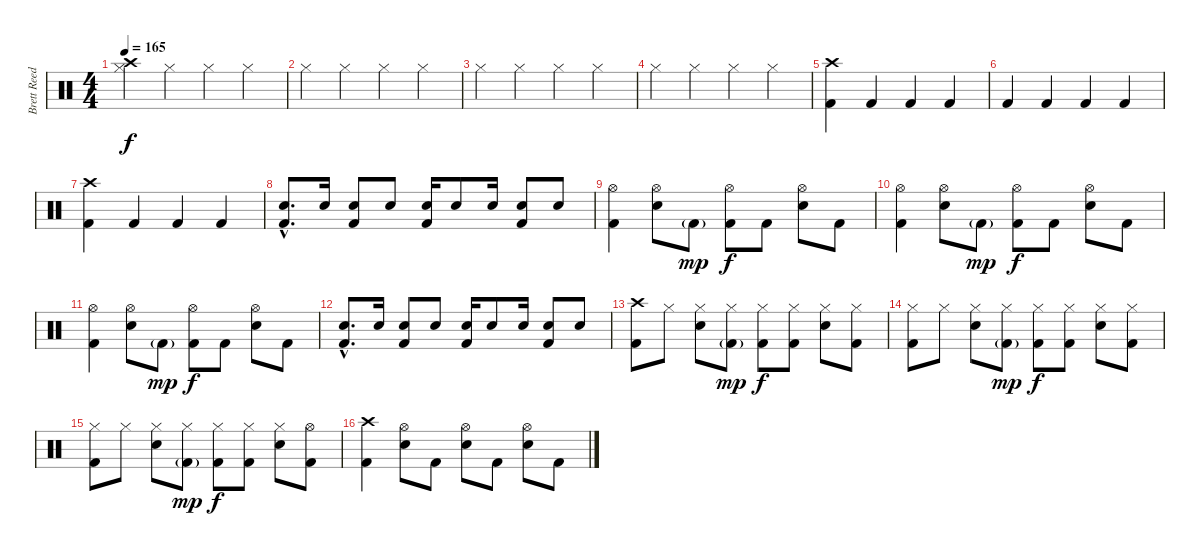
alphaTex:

\track ("Brett Reed - Drums" "Brett Reed") {instrument percussion}
\staff {score}
\articulation defaults
\ts (4 4)
\tempo 165
\clef neutral
\ks c
("Crash high (hit)" "Hi-Hat (closed)").4{dy f} "Hi-Hat (closed)".4 "Hi-Hat (closed)".4 "Hi-Hat (closed)".4 |
"Hi-Hat (closed)".4 "Hi-Hat (closed)".4 "Hi-Hat (closed)".4 "Hi-Hat (closed)".4 |
"Hi-Hat (closed)".4 "Hi-Hat (closed)".4 "Hi-Hat (closed)".4 "Hi-Hat (closed)".4 |
"Hi-Hat (closed)".4 "Hi-Hat (closed)".4 "Hi-Hat (closed)".4 "Hi-Hat (closed)".4 |
("Crash high (hit)" "Kick (hit) 2").4 "Kick (hit) 2".4 "Kick (hit) 2".4 "Kick (hit) 2".4 |
"Kick (hit) 2".4 "Kick (hit) 2".4 "Kick (hit) 2".4 "Kick (hit) 2".4 |
("Crash high (hit)" "Kick (hit) 2").4 "Kick (hit) 2".4 "Kick (hit) 2".4 "Kick (hit) 2".4 |
("Electric Snare (hit)"{hac} "Kick (hit) 2"{hac}).8{d} "Electric Snare (hit)".16 ("Electric Snare (hit)" "Kick (hit) 2").8 "Electric Snare (hit)".8 ("Electric Snare (hit)" "Kick (hit) 2").16 "Electric Snare (hit)".8 "Electric Snare (hit)".16 ("Electric Snare (hit)" "Kick (hit) 2").8 "Electric Snare (hit)".8 |
("Hi-Hat (open)" "Kick (hit) 2").4 ("Hi-Hat (open)" "Electric Snare (hit)").8 "Kick (hit) 2"{g}.8{dy mp} ("Hi-Hat (open)" "Kick (hit) 2").8{dy f} "Kick (hit) 2".8 ("Hi-Hat (open)" "Electric Snare (hit)").8 "Kick (hit) 2".8 |
("Hi-Hat (open)" "Kick (hit) 2").4 ("Hi-Hat (open)" "Electric Snare (hit)").8 "Kick (hit) 2"{g}.8{dy mp} ("Hi-Hat (open)" "Kick (hit) 2").8{dy f} "Kick (hit) 2".8 ("Hi-Hat (open)" "Electric Snare (hit)").8 "Kick (hit) 2".8 |
("Hi-Hat (open)" "Kick (hit) 2").4 ("Hi-Hat (open)" "Electric Snare (hit)").8 "Kick (hit) 2"{g}.8{dy mp} ("Hi-Hat (open)" "Kick (hit) 2").8{dy f} "Kick (hit) 2".8 ("Hi-Hat (open)" "Electric Snare (hit)").8 "Kick (hit) 2".8 |
("Electric Snare (hit)"{hac} "Kick (hit) 2"{hac}).8{d} "Electric Snare (hit)".16 ("Electric Snare (hit)" "Kick (hit) 2").8 "Electric Snare (hit)".8 ("Electric Snare (hit)" "Kick (hit) 2").16 "Electric Snare (hit)".8 "Electric Snare (hit)".16 ("Electric Snare (hit)" "Kick (hit) 2").8 "Electric Snare (hit)".8 |
("Crash high (hit)" "Kick (hit) 2").8 "Hi-Hat (closed)".8 ("Hi-Hat (closed)" "Electric Snare (hit)").8 ("Hi-Hat (closed)" "Kick (hit) 2"{g}).8{dy mp} ("Hi-Hat (closed)" "Kick (hit) 2").8{dy f} ("Hi-Hat (closed)" "Kick (hit) 2").8 ("Hi-Hat (closed)" "Electric Snare (hit)").8 ("Hi-Hat (closed)" "Kick (hit) 2").8 |
("Hi-Hat (closed)" "Kick (hit) 2").8 "Hi-Hat (closed)".8 ("Hi-Hat (closed)" "Electric Snare (hit)").8 ("Hi-Hat (closed)" "Kick (hit) 2"{g}).8{dy mp} ("Hi-Hat (closed)" "Kick (hit) 2").8{dy f} ("Hi-Hat (closed)" "Kick (hit) 2").8 ("Hi-Hat (closed)" "Electric Snare (hit)").8 ("Hi-Hat (closed)" "Kick (hit) 2").8 |
("Hi-Hat (closed)" "Kick (hit) 2").8 "Hi-Hat (closed)".8 ("Hi-Hat (closed)" "Electric Snare (hit)").8 ("Hi-Hat (closed)" "Kick (hit) 2"{g}).8{dy mp} ("Hi-Hat (closed)" "Kick (hit) 2").8{dy f} ("Hi-Hat (closed)" "Kick (hit) 2").8 ("Hi-Hat (closed)" "Electric Snare (hit)").8 ("Hi-Hat (open)" "Kick (hit) 2").8 |
("Crash high (hit)" "Kick (hit) 2").4 ("Hi-Hat (open)" "Electric Snare (hit)").8 "Kick (hit) 2".8 ("Hi-Hat (open)" "Electric Snare (hit)").8 "Kick (hit) 2".8 ("Hi-Hat (open)" "Electric Snare (hit)").8 "Kick (hit) 2".8
